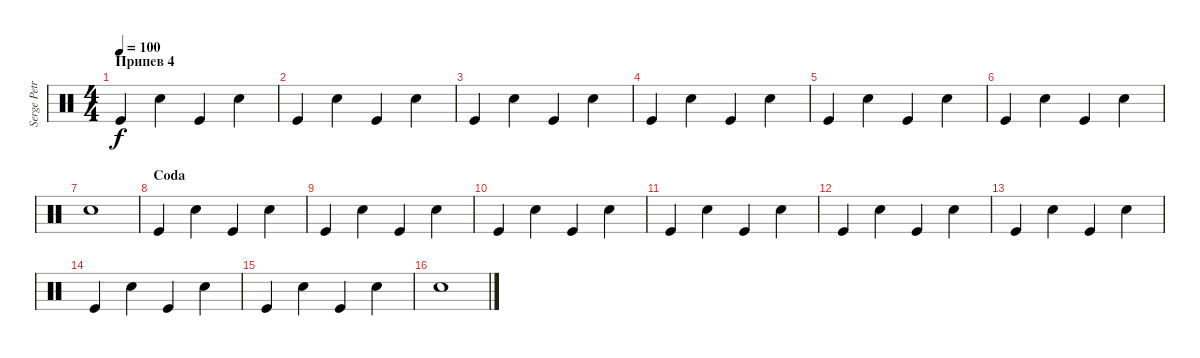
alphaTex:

\track ("Serge Petrone" "Serge Petr") {instrument percussion}
\staff {score}
\articulation defaults
\ts (4 4)
\section ("" "Припев 4")
\tempo 100
\clef neutral
\ks c "Kick (hit)".4{dy f} "Snare (hit) 2".4 "Kick (hit)".4 "Snare (hit) 2".4
|
"Kick (hit)".4 "Snare (hit) 2".4 "Kick (hit)".4 "Snare (hit) 2".4 |
"Kick (hit)".4 "Snare (hit) 2".4 "Kick (hit)".4 "Snare (hit) 2".4 |
"Kick (hit)".4 "Snare (hit) 2".4 "Kick (hit)".4 "Snare (hit) 2".4 |
"Kick (hit)".4 "Snare (hit) 2".4 "Kick (hit)".4 "Snare (hit) 2".4 |
"Kick (hit)".4 "Snare (hit) 2".4 "Kick (hit)".4 "Snare (hit) 2".4 |
"Snare (hit) 2".1 |
\section ("" "Coda")
"Kick (hit)".4 "Snare (hit) 2".4 "Kick (hit)".4 "Snare (hit) 2".4 |
"Kick (hit)".4 "Snare (hit) 2".4 "Kick (hit)".4 "Snare (hit) 2".4 |
"Kick (hit)".4 "Snare (hit) 2".4 "Kick (hit)".4 "Snare (hit) 2".4 |
"Kick (hit)".4 "Snare (hit) 2".4 "Kick (hit)".4 "Snare (hit) 2".4 |
"Kick (hit)".4 "Snare (hit) 2".4 "Kick (hit)".4 "Snare (hit) 2".4 |
"Kick (hit)".4 "Snare (hit) 2".4 "Kick (hit)".4 "Snare (hit) 2".4 |
"Kick (hit)".4 "Snare (hit) 2".4 "Kick (hit)".4 "Snare (hit) 2".4 |
"Kick (hit)".4 "Snare (hit) 2".4 "Kick (hit)".4 "Snare (hit) 2".4 |
"Snare (hit) 2".1
